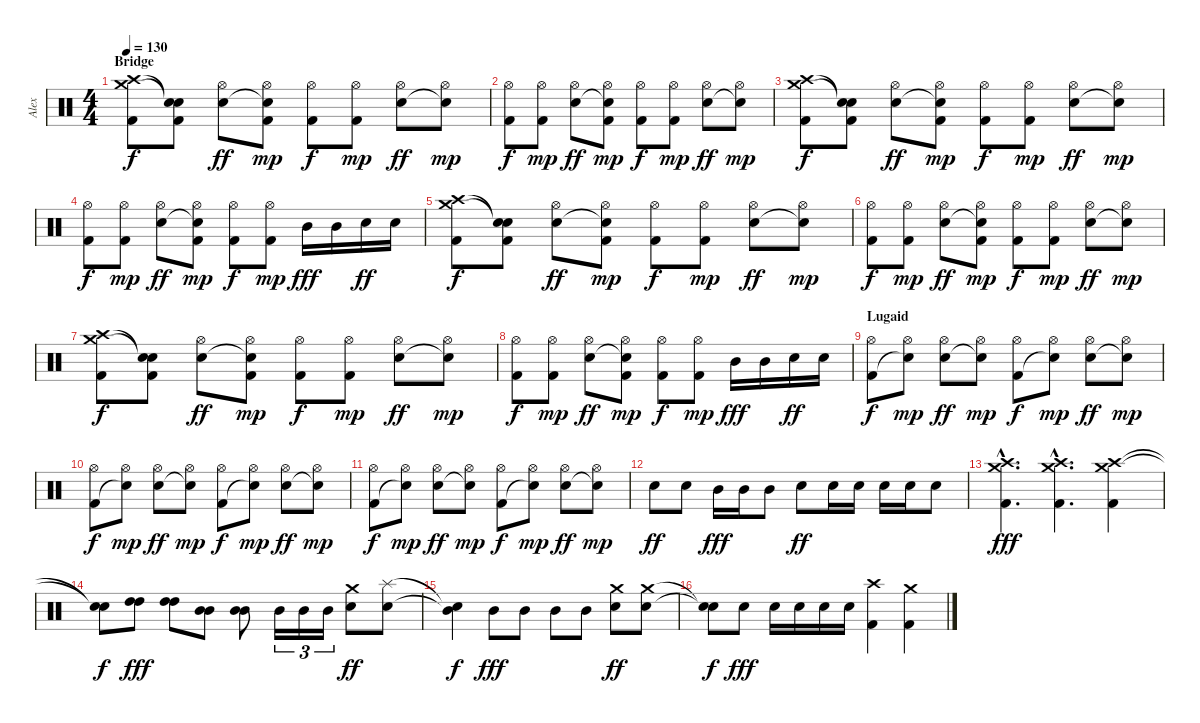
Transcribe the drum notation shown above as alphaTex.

\track ("Alex" "Alex") {instrument percussion}
\staff {score}
\articulation defaults
\ts (4 4)
\section ("" "Bridge")
\tempo 130
\clef neutral
\ks c
("Crash medium (hit)" "Crash high (hit)" "Kick (hit) 2").8{dy f} ("Snare (hit)"{t} "Snare (hit)"{t} "Kick (hit) 2").8 ("Hi-Hat (open)" "Electric Snare (hit)").8{dy ff} ("Hi-Hat (open)" "Snare (hit)"{t} "Kick (hit) 2").8{dy mp} ("Hi-Hat (open)" "Kick (hit) 2").8{dy f} ("Hi-Hat (open)" "Kick (hit) 2").8{dy mp} ("Hi-Hat (open)" "Electric Snare (hit)").8{dy ff} ("Hi-Hat (open)" "Snare (hit)"{t}).8{dy mp} |
("Hi-Hat (open)" "Kick (hit) 2").8{dy f} ("Hi-Hat (open)" "Kick (hit) 2").8{dy mp} ("Hi-Hat (open)" "Electric Snare (hit)").8{dy ff} ("Hi-Hat (open)" "Snare (hit)"{t} "Kick (hit) 2").8{dy mp} ("Hi-Hat (open)" "Kick (hit) 2").8{dy f} ("Hi-Hat (open)" "Kick (hit) 2").8{dy mp} ("Hi-Hat (open)" "Electric Snare (hit)").8{dy ff} ("Hi-Hat (open)" "Snare (hit)"{t}).8{dy mp} |
("Crash medium (hit)" "Crash high (hit)" "Kick (hit) 2").8{dy f} ("Snare (hit)"{t} "Snare (hit)"{t} "Kick (hit) 2").8 ("Hi-Hat (open)" "Electric Snare (hit)").8{dy ff} ("Hi-Hat (open)" "Snare (hit)"{t} "Kick (hit) 2").8{dy mp} ("Hi-Hat (open)" "Kick (hit) 2").8{dy f} ("Hi-Hat (open)" "Kick (hit) 2").8{dy mp} ("Hi-Hat (open)" "Electric Snare (hit)").8{dy ff} ("Hi-Hat (open)" "Snare (hit)"{t}).8{dy mp} |
("Hi-Hat (open)" "Kick (hit) 2").8{dy f} ("Hi-Hat (open)" "Kick (hit) 2").8{dy mp} ("Hi-Hat (open)" "Electric Snare (hit)").8{dy ff} ("Hi-Hat (open)" "Snare (hit)"{t} "Kick (hit) 2").8{dy mp} ("Hi-Hat (open)" "Kick (hit) 2").8{dy f} ("Hi-Hat (open)" "Kick (hit) 2").8{dy mp} "Mid Tom (hit)".16{dy fff} "Mid Tom (hit)".16 "Electric Snare (hit)".16{dy ff} "Electric Snare (hit)".16 |
("Crash medium (hit)" "Crash high (hit)" "Kick (hit) 2").8{dy f} ("Snare (hit)"{t} "Snare (hit)"{t} "Kick (hit) 2").8 ("Hi-Hat (open)" "Electric Snare (hit)").8{dy ff} ("Hi-Hat (open)" "Snare (hit)"{t} "Kick (hit) 2").8{dy mp} ("Hi-Hat (open)" "Kick (hit) 2").8{dy f} ("Hi-Hat (open)" "Kick (hit) 2").8{dy mp} ("Hi-Hat (open)" "Electric Snare (hit)").8{dy ff} ("Hi-Hat (open)" "Snare (hit)"{t}).8{dy mp} |
("Hi-Hat (open)" "Kick (hit) 2").8{dy f} ("Hi-Hat (open)" "Kick (hit) 2").8{dy mp} ("Hi-Hat (open)" "Electric Snare (hit)").8{dy ff} ("Hi-Hat (open)" "Snare (hit)"{t} "Kick (hit) 2").8{dy mp} ("Hi-Hat (open)" "Kick (hit) 2").8{dy f} ("Hi-Hat (open)" "Kick (hit) 2").8{dy mp} ("Hi-Hat (open)" "Electric Snare (hit)").8{dy ff} ("Hi-Hat (open)" "Snare (hit)"{t}).8{dy mp} |
("Crash medium (hit)" "Crash high (hit)" "Kick (hit) 2").8{dy f} ("Snare (hit)"{t} "Snare (hit)"{t} "Kick (hit) 2").8 ("Hi-Hat (open)" "Electric Snare (hit)").8{dy ff} ("Hi-Hat (open)" "Snare (hit)"{t} "Kick (hit) 2").8{dy mp} ("Hi-Hat (open)" "Kick (hit) 2").8{dy f} ("Hi-Hat (open)" "Kick (hit) 2").8{dy mp} ("Hi-Hat (open)" "Electric Snare (hit)").8{dy ff} ("Hi-Hat (open)" "Snare (hit)"{t}).8{dy mp} |
("Hi-Hat (open)" "Kick (hit) 2").8{dy f} ("Hi-Hat (open)" "Kick (hit) 2").8{dy mp} ("Hi-Hat (open)" "Electric Snare (hit)").8{dy ff} ("Hi-Hat (open)" "Snare (hit)"{t} "Kick (hit) 2").8{dy mp} ("Hi-Hat (open)" "Kick (hit) 2").8{dy f} ("Hi-Hat (open)" "Kick (hit) 2").8{dy mp} "Mid Tom (hit)".16{dy fff} "Mid Tom (hit)".16 "Electric Snare (hit)".16{dy ff} "Electric Snare (hit)".16 |
\section ("" "Lugaid")
("Hi-Hat (open)" "Kick (hit) 2").8{dy f} ("Hi-Hat (open)" "Snare (hit)"{t}).8{dy mp} ("Hi-Hat (open)" "Electric Snare (hit)").8{dy ff} ("Hi-Hat (open)" "Snare (hit)"{t}).8{dy mp} ("Hi-Hat (open)" "Kick (hit) 2").8{dy f} ("Hi-Hat (open)" "Snare (hit)"{t}).8{dy mp} ("Hi-Hat (open)" "Electric Snare (hit)").8{dy ff} ("Hi-Hat (open)" "Snare (hit)"{t}).8{dy mp} |
("Hi-Hat (open)" "Kick (hit) 2").8{dy f} ("Hi-Hat (open)" "Snare (hit)"{t}).8{dy mp} ("Hi-Hat (open)" "Electric Snare (hit)").8{dy ff} ("Hi-Hat (open)" "Snare (hit)"{t}).8{dy mp} ("Hi-Hat (open)" "Kick (hit) 2").8{dy f} ("Hi-Hat (open)" "Snare (hit)"{t}).8{dy mp} ("Hi-Hat (open)" "Electric Snare (hit)").8{dy ff} ("Hi-Hat (open)" "Snare (hit)"{t}).8{dy mp} |
("Hi-Hat (open)" "Kick (hit) 2").8{dy f} ("Hi-Hat (open)" "Snare (hit)"{t}).8{dy mp} ("Hi-Hat (open)" "Electric Snare (hit)").8{dy ff} ("Hi-Hat (open)" "Snare (hit)"{t}).8{dy mp} ("Hi-Hat (open)" "Kick (hit) 2").8{dy f} ("Hi-Hat (open)" "Snare (hit)"{t}).8{dy mp} ("Hi-Hat (open)" "Electric Snare (hit)").8{dy ff} ("Hi-Hat (open)" "Snare (hit)"{t}).8{dy mp} |
"Electric Snare (hit)".8{dy ff} "Electric Snare (hit)".8 "Mid Tom (hit)".16{dy fff} "Mid Tom (hit)".16 "Mid Tom (hit)".8 "Electric Snare (hit)".8{dy ff} "Electric Snare (hit)".16 "Electric Snare (hit)".16 "Electric Snare (hit)".16 "Electric Snare (hit)".16 "Electric Snare (hit)".8 |
("Crash medium (hit)"{hac} "Crash high (hit)"{hac} "Kick (hit) 2"{hac}).4{d dy fff} ("Crash medium (hit)"{hac} "Crash high (hit)"{hac} "Kick (hit) 2"{hac}).4{d} ("Crash medium (hit)" "Crash high (hit)" "Kick (hit) 2").4 |
("Snare (hit)"{t} "Snare (hit)"{t}).8{dy f} ("High Tom (hit)" "High Tom (hit)").8{dy fff} ("High Tom (hit)" "High Tom (hit)").8 ("Mid Tom (hit)" "Mid Tom (hit)").8 ("Mid Tom (hit)" "Mid Tom (hit)").8 "Mid Tom (hit)".16{tu (3 2)} "Mid Tom (hit)".16{tu (3 2)} "Mid Tom (hit)".16{tu (3 2)} ("Crash medium (hit)" "Electric Snare (hit)").8{dy ff} ("Splash (hit)" "Electric Snare (hit)").8 |
("Snare (hit)"{t} "Mid Tom (hit)"{t}).4{dy f} "Mid Tom (hit)".8{dy fff} "Mid Tom (hit)".8 "Mid Tom (hit)".8 "Mid Tom (hit)".8 ("Crash medium (hit)" "Electric Snare (hit)").8{dy ff} ("Crash medium (hit)" "Electric Snare (hit)").8 |
("Snare (hit)"{t} "Snare (hit)"{t}).8{dy f} "Electric Snare (hit)".8{dy fff} "Electric Snare (hit)".16 "Electric Snare (hit)".16 "Electric Snare (hit)".16 "Electric Snare (hit)".16 ("Crash high (hit)" "Kick (hit) 2").4 ("Crash medium (hit)" "Kick (hit) 2").4
